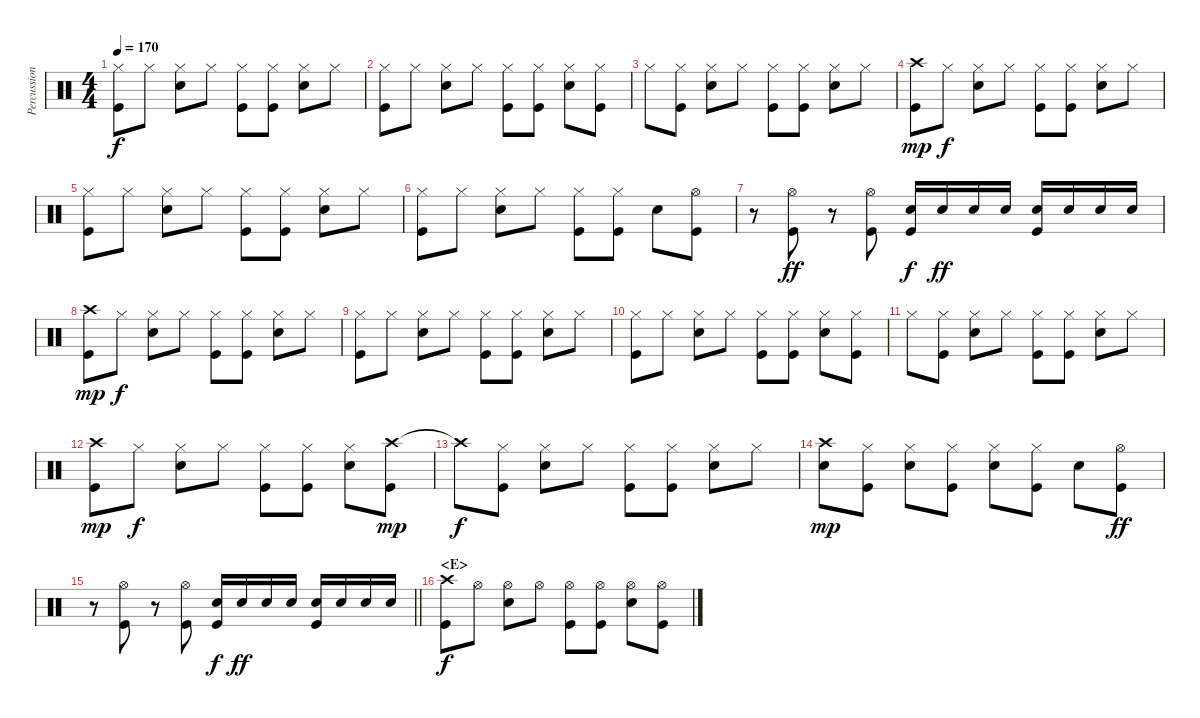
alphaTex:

\track ("Percussion" "Percussion") {instrument percussion}
\staff {score}
\articulation defaults
\ts (4 4)
\tempo 170
\clef neutral
\ks c
("Hi-Hat (closed)" "Kick (hit)").8{dy f} "Hi-Hat (closed)".8 ("Hi-Hat (closed)" "Snare (hit) 2").8 "Hi-Hat (closed)".8 ("Hi-Hat (closed)" "Kick (hit)").8 ("Hi-Hat (closed)" "Kick (hit)").8 ("Hi-Hat (closed)" "Snare (hit) 2").8 "Hi-Hat (closed)".8 |
("Hi-Hat (closed)" "Kick (hit)").8 "Hi-Hat (closed)".8 ("Hi-Hat (closed)" "Snare (hit) 2").8 "Hi-Hat (closed)".8 ("Hi-Hat (closed)" "Kick (hit)").8 ("Hi-Hat (closed)" "Kick (hit)").8 ("Hi-Hat (closed)" "Snare (hit) 2").8 ("Hi-Hat (closed)" "Kick (hit)").8 |
"Hi-Hat (closed)".8 ("Hi-Hat (closed)" "Kick (hit)").8 ("Hi-Hat (closed)" "Snare (hit) 2").8 "Hi-Hat (closed)".8 ("Hi-Hat (closed)" "Kick (hit)").8 ("Hi-Hat (closed)" "Kick (hit)").8 ("Hi-Hat (closed)" "Snare (hit) 2").8 "Hi-Hat (closed)".8 |
("Crash high (hit)" "Kick (hit)").8{dy mp} "Hi-Hat (closed)".8{dy f} ("Hi-Hat (closed)" "Snare (hit) 2").8 "Hi-Hat (closed)".8 ("Hi-Hat (closed)" "Kick (hit)").8 ("Hi-Hat (closed)" "Kick (hit)").8 ("Hi-Hat (closed)" "Snare (hit) 2").8 "Hi-Hat (closed)".8 |
("Hi-Hat (closed)" "Kick (hit)").8 "Hi-Hat (closed)".8 ("Hi-Hat (closed)" "Snare (hit) 2").8 "Hi-Hat (closed)".8 ("Hi-Hat (closed)" "Kick (hit)").8 ("Hi-Hat (closed)" "Kick (hit)").8 ("Hi-Hat (closed)" "Snare (hit) 2").8 "Hi-Hat (closed)".8 |
("Hi-Hat (closed)" "Kick (hit)").8 "Hi-Hat (closed)".8 ("Hi-Hat (closed)" "Snare (hit) 2").8 "Hi-Hat (closed)".8 ("Hi-Hat (closed)" "Kick (hit)").8 ("Hi-Hat (closed)" "Kick (hit)").8 "Snare (hit) 2".8 ("Hi-Hat (open)" "Kick (hit)").8 |
r.8 ("Hi-Hat (open)" "Kick (hit)").8{dy ff} r.8 ("Hi-Hat (open)" "Kick (hit)").8 ("Kick (hit)" "Snare (hit) 2").16{dy f} "Snare (hit) 2".16{dy ff} "Snare (hit) 2".16 "Snare (hit) 2".16 ("Snare (hit) 2" "Kick (hit)").16 "Snare (hit) 2".16 "Snare (hit) 2".16 "Snare (hit) 2".16 |
("Crash high (hit)" "Kick (hit)").8{dy mp} "Hi-Hat (closed)".8{dy f} ("Hi-Hat (closed)" "Snare (hit) 2").8 "Hi-Hat (closed)".8 ("Hi-Hat (closed)" "Kick (hit)").8 ("Hi-Hat (closed)" "Kick (hit)").8 ("Hi-Hat (closed)" "Snare (hit) 2").8 "Hi-Hat (closed)".8 |
("Hi-Hat (closed)" "Kick (hit)").8 "Hi-Hat (closed)".8 ("Hi-Hat (closed)" "Snare (hit) 2").8 "Hi-Hat (closed)".8 ("Hi-Hat (closed)" "Kick (hit)").8 ("Hi-Hat (closed)" "Kick (hit)").8 ("Hi-Hat (closed)" "Snare (hit) 2").8 "Hi-Hat (closed)".8 |
("Hi-Hat (closed)" "Kick (hit)").8 "Hi-Hat (closed)".8 ("Hi-Hat (closed)" "Snare (hit) 2").8 "Hi-Hat (closed)".8 ("Hi-Hat (closed)" "Kick (hit)").8 ("Hi-Hat (closed)" "Kick (hit)").8 ("Hi-Hat (closed)" "Snare (hit) 2").8 ("Hi-Hat (closed)" "Kick (hit)").8 |
"Hi-Hat (closed)".8 ("Hi-Hat (closed)" "Kick (hit)").8 ("Hi-Hat (closed)" "Snare (hit) 2").8 "Hi-Hat (closed)".8 ("Hi-Hat (closed)" "Kick (hit)").8 ("Hi-Hat (closed)" "Kick (hit)").8 ("Hi-Hat (closed)" "Snare (hit) 2").8 "Hi-Hat (closed)".8 |
("Crash high (hit)" "Kick (hit)").8{dy mp} "Hi-Hat (closed)".8{dy f} ("Hi-Hat (closed)" "Snare (hit) 2").8 "Hi-Hat (closed)".8 ("Hi-Hat (closed)" "Kick (hit)").8 ("Hi-Hat (closed)" "Kick (hit)").8 ("Hi-Hat (closed)" "Snare (hit) 2").8 ("Crash high (hit)" "Kick (hit)").8{dy mp} |
"Crash high (hit)"{t}.8{dy f} ("Hi-Hat (closed)" "Kick (hit)").8 ("Hi-Hat (closed)" "Snare (hit) 2").8 "Hi-Hat (closed)".8 ("Hi-Hat (closed)" "Kick (hit)").8 ("Hi-Hat (closed)" "Kick (hit)").8 ("Hi-Hat (closed)" "Snare (hit) 2").8 "Hi-Hat (closed)".8 |
("Crash high (hit)" "Snare (hit) 2").8{dy mp} ("Hi-Hat (closed)" "Kick (hit)").8 ("Hi-Hat (closed)" "Snare (hit) 2").8 ("Hi-Hat (closed)" "Kick (hit)").8 ("Hi-Hat (closed)" "Snare (hit) 2").8 ("Hi-Hat (closed)" "Kick (hit)").8 "Snare (hit) 2".8 ("Hi-Hat (open)" "Kick (hit)").8{dy ff} |
\barLineRight lightlight
r.8 ("Hi-Hat (open)" "Kick (hit)").8 r.8 ("Hi-Hat (open)" "Kick (hit)").8 ("Kick (hit)" "Snare (hit) 2").16{dy f} "Snare (hit) 2".16{dy ff} "Snare (hit) 2".16 "Snare (hit) 2".16 ("Snare (hit) 2" "Kick (hit)").16 "Snare (hit) 2".16 "Snare (hit) 2".16 "Snare (hit) 2".16 |
\section ("" "<E>")
("Crash high (hit)" "Kick (hit)").8{dy f} "Hi-Hat (open)".8 ("Hi-Hat (open)" "Snare (hit) 2").8 "Hi-Hat (open)".8 ("Hi-Hat (open)" "Kick (hit)").8 ("Hi-Hat (open)" "Kick (hit)").8 ("Hi-Hat (open)" "Snare (hit) 2").8 ("Hi-Hat (open)" "Kick (hit)").8
